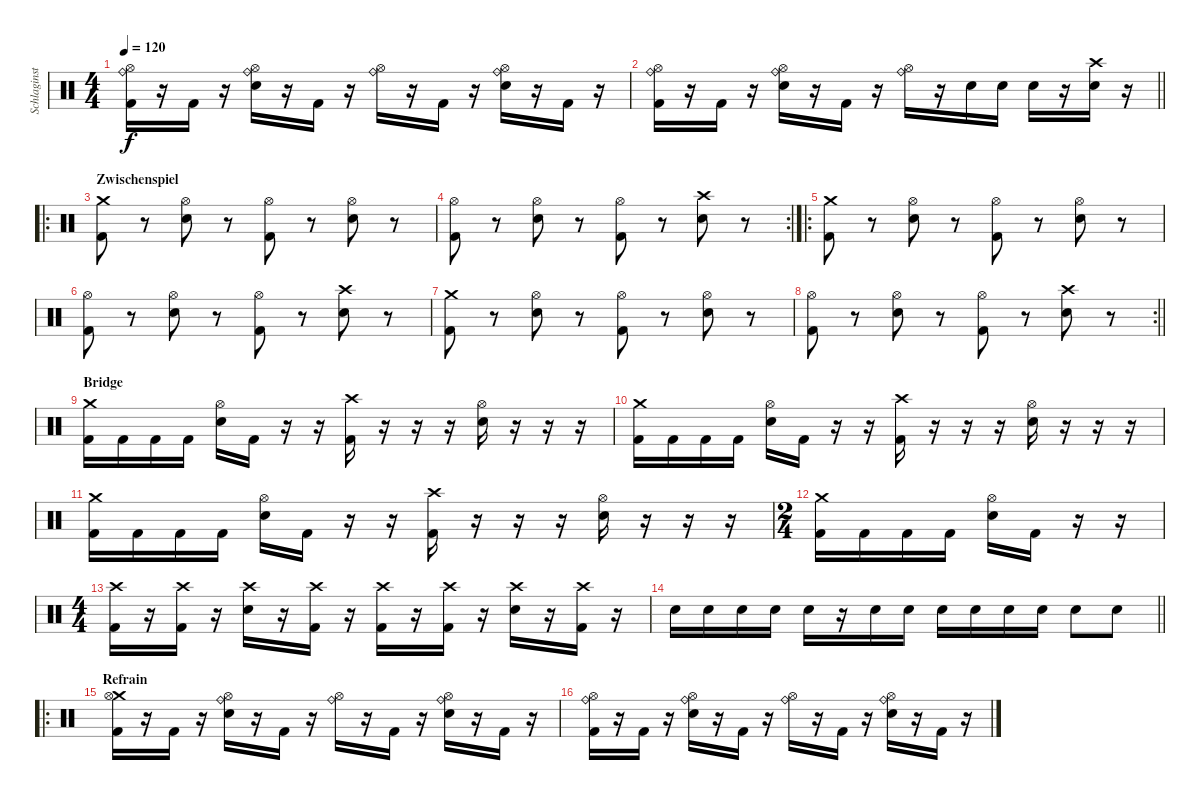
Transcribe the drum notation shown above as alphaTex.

\track ("Schlaginstrumente - Auswahl" "Schlaginst") {instrument percussion}
\staff {score}
\articulation defaults
\ts (4 4)
\tempo 120
\clef neutral
\ks c
("Hi-Hat (open)" "Ride (bell)" "Kick (hit) 2").16{dy f} r.16 "Kick (hit) 2".16 r.16 ("Hi-Hat (open)" "Ride (bell)" "Electric Snare (hit)").16 r.16 "Kick (hit) 2".16 r.16 ("Hi-Hat (open)" "Ride (bell)").16 r.16 "Kick (hit) 2".16 r.16 ("Hi-Hat (open)" "Ride (bell)" "Electric Snare (hit)").16 r.16 "Kick (hit) 2".16 r.16 |
\barLineRight lightlight
("Hi-Hat (open)" "Ride (bell)" "Kick (hit) 2").16 r.16 "Kick (hit) 2".16 r.16 ("Hi-Hat (open)" "Ride (bell)" "Electric Snare (hit)").16 r.16 "Kick (hit) 2".16 r.16 ("Hi-Hat (open)" "Ride (bell)").16 r.16 "Electric Snare (hit)".16 "Electric Snare (hit)".16 "Electric Snare (hit)".16 r.16 ("Crash high (hit)" "Electric Snare (hit)").16 r.16 |
\ro
\section ("" "Zwischenspiel")
("Crash medium (hit)" "Kick (hit) 2").8 r.8 ("Hi-Hat (open)" "Electric Snare (hit)").8 r.8 ("Hi-Hat (open)" "Kick (hit) 2").8 r.8 ("Hi-Hat (open)" "Electric Snare (hit)").8 r.8 |
\rc 2
("Hi-Hat (open)" "Kick (hit) 2").8 r.8 ("Hi-Hat (open)" "Electric Snare (hit)").8 r.8 ("Hi-Hat (open)" "Kick (hit) 2").8 r.8 ("Crash high (hit)" "Electric Snare (hit)").8 r.8 |
\ro
("Crash medium (hit)" "Kick (hit) 2").8 r.8 ("Hi-Hat (open)" "Electric Snare (hit)").8 r.8 ("Hi-Hat (open)" "Kick (hit) 2").8 r.8 ("Hi-Hat (open)" "Electric Snare (hit)").8 r.8 |
("Hi-Hat (open)" "Kick (hit) 2").8 r.8 ("Hi-Hat (open)" "Electric Snare (hit)").8 r.8 ("Hi-Hat (open)" "Kick (hit) 2").8 r.8 ("Crash high (hit)" "Electric Snare (hit)").8 r.8 |
("Crash medium (hit)" "Kick (hit) 2").8 r.8 ("Hi-Hat (open)" "Electric Snare (hit)").8 r.8 ("Hi-Hat (open)" "Kick (hit) 2").8 r.8 ("Hi-Hat (open)" "Electric Snare (hit)").8 r.8 |
\rc 2
\barLineRight lightlight
("Hi-Hat (open)" "Kick (hit) 2").8 r.8 ("Hi-Hat (open)" "Electric Snare (hit)").8 r.8 ("Hi-Hat (open)" "Kick (hit) 2").8 r.8 ("Crash high (hit)" "Electric Snare (hit)").8 r.8 |
\section ("" "Bridge")
("Crash medium (hit)" "Kick (hit) 2").16 "Kick (hit) 2".16 "Kick (hit) 2".16 "Kick (hit) 2".16 ("Hi-Hat (open)" "Electric Snare (hit)").16 "Kick (hit) 2".16 r.16 r.16 ("Crash high (hit)" "Kick (hit) 2").16 r.16 r.16 r.16 ("Hi-Hat (open)" "Electric Snare (hit)").16 r.16 r.16 r.16 |
("Crash medium (hit)" "Kick (hit) 2").16 "Kick (hit) 2".16 "Kick (hit) 2".16 "Kick (hit) 2".16 ("Hi-Hat (open)" "Electric Snare (hit)").16 "Kick (hit) 2".16 r.16 r.16 ("Crash high (hit)" "Kick (hit) 2").16 r.16 r.16 r.16 ("Hi-Hat (open)" "Electric Snare (hit)").16 r.16 r.16 r.16 |
("Crash medium (hit)" "Kick (hit) 2").16 "Kick (hit) 2".16 "Kick (hit) 2".16 "Kick (hit) 2".16 ("Hi-Hat (open)" "Electric Snare (hit)").16 "Kick (hit) 2".16 r.16 r.16 ("Crash high (hit)" "Kick (hit) 2").16 r.16 r.16 r.16 ("Hi-Hat (open)" "Electric Snare (hit)").16 r.16 r.16 r.16 |
\ts (2 4)
("Crash medium (hit)" "Kick (hit) 2").16 "Kick (hit) 2".16 "Kick (hit) 2".16 "Kick (hit) 2".16 ("Hi-Hat (open)" "Electric Snare (hit)").16 "Kick (hit) 2".16 r.16 r.16 |
\ts (4 4)
("Crash high (hit)" "Kick (hit) 2").16 r.16 ("Crash high (hit)" "Kick (hit) 2").16 r.16 ("Crash high (hit)" "Electric Snare (hit)").16 r.16 ("Crash high (hit)" "Kick (hit) 2").16 r.16 ("Crash high (hit)" "Kick (hit) 2").16 r.16 ("Crash high (hit)" "Kick (hit) 2").16 r.16 ("Crash high (hit)" "Electric Snare (hit)").16 r.16 ("Crash high (hit)" "Kick (hit) 2").16 r.16 |
\barLineRight lightlight "Electric Snare (hit)".16 "Electric Snare (hit)".16 "Electric Snare (hit)".16 "Electric Snare (hit)".16 "Electric Snare (hit)".16
r.16 "Electric Snare (hit)".16 "Electric Snare (hit)".16 "Electric Snare (hit)".16 "Electric Snare (hit)".16 "Electric Snare (hit)".16 "Electric Snare (hit)".16 "Electric Snare (hit)".8 "Electric Snare (hit)".8 |
\ro
\section ("" "Refrain")
("Crash medium (hit)" "Hi-Hat (open)" "Kick (hit) 2").16 r.16 "Kick (hit) 2".16 r.16 ("Hi-Hat (open)" "Ride (bell)" "Electric Snare (hit)").16 r.16 "Kick (hit) 2".16 r.16 ("Hi-Hat (open)" "Ride (bell)").16 r.16 "Kick (hit) 2".16 r.16 ("Hi-Hat (open)" "Ride (bell)" "Electric Snare (hit)").16 r.16 "Kick (hit) 2".16 r.16 |
("Hi-Hat (open)" "Ride (bell)" "Kick (hit) 2").16 r.16 "Kick (hit) 2".16 r.16 ("Hi-Hat (open)" "Ride (bell)" "Electric Snare (hit)").16 r.16 "Kick (hit) 2".16 r.16 ("Hi-Hat (open)" "Ride (bell)").16 r.16 "Kick (hit) 2".16 r.16 ("Hi-Hat (open)" "Ride (bell)" "Electric Snare (hit)").16 r.16 "Kick (hit) 2".16 r.16
